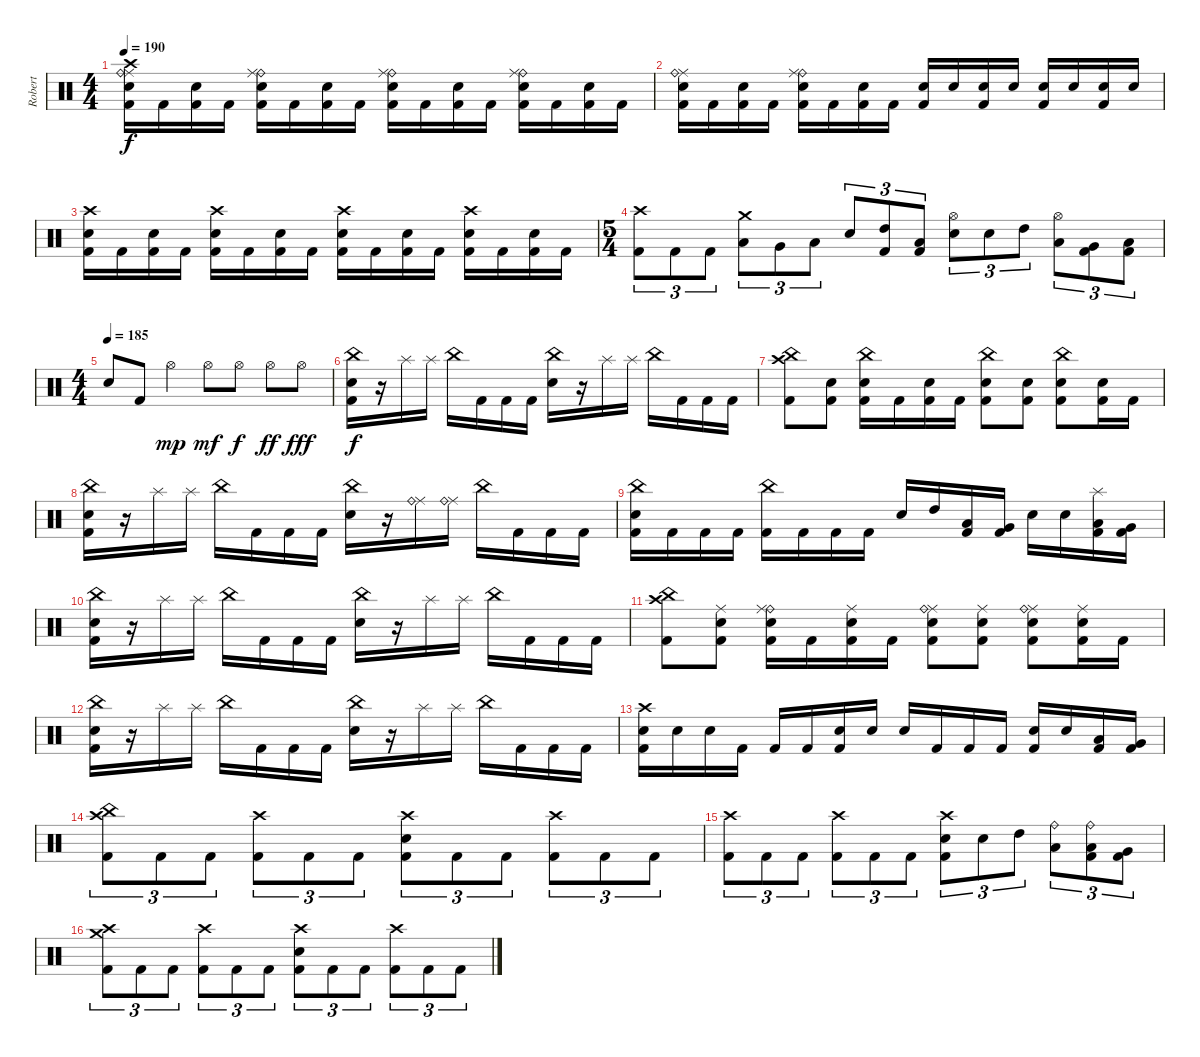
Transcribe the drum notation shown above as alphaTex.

\track ("Robert" "Robert") {instrument percussion}
\staff {score}
\articulation defaults
\ts (4 4)
\tempo 190
\clef neutral
\ks c
("Crash high (hit)" "Ride (middle)" "Electric Snare (hit)" "Ride (bell)" "Kick (hit) 2").16{dy f} "Kick (hit) 2".16 ("Electric Snare (hit)" "Kick (hit) 2").16 "Kick (hit) 2".16 ("Ride (bell)" "Electric Snare (hit)" "Ride (middle)" "Kick (hit) 2").16 "Kick (hit) 2".16 ("Electric Snare (hit)" "Kick (hit) 2").16 "Kick (hit) 2".16 ("Ride (bell)" "Electric Snare (hit)" "Ride (middle)" "Kick (hit) 2").16 "Kick (hit) 2".16 ("Electric Snare (hit)" "Kick (hit) 2").16 "Kick (hit) 2".16 ("Ride (bell)" "Ride (middle)" "Electric Snare (hit)" "Kick (hit) 2").16 "Kick (hit) 2".16 ("Electric Snare (hit)" "Kick (hit) 2").16 "Kick (hit) 2".16 |
("Electric Snare (hit)" "Kick (hit) 2" "Ride (middle)" "Ride (bell)").16 "Kick (hit) 2".16 ("Electric Snare (hit)" "Kick (hit) 2").16 "Kick (hit) 2".16 ("Ride (bell)" "Electric Snare (hit)" "Ride (middle)" "Kick (hit) 2").16 "Kick (hit) 2".16 ("Electric Snare (hit)" "Kick (hit) 2").16 "Kick (hit) 2".16 ("Kick (hit) 2" "Electric Snare (hit)").16 "Electric Snare (hit)".16 ("Kick (hit) 2" "Electric Snare (hit)").16 "Electric Snare (hit)".16 ("Kick (hit) 2" "Electric Snare (hit)").16 "Electric Snare (hit)".16 ("Kick (hit) 2" "Electric Snare (hit)").16 "Electric Snare (hit)".16 |
("Crash high (hit)" "Electric Snare (hit)" "Kick (hit) 2").16 "Kick (hit) 2".16 ("Electric Snare (hit)" "Kick (hit) 2").16 "Kick (hit) 2".16 ("Crash high (hit)" "Electric Snare (hit)" "Kick (hit) 2").16 "Kick (hit) 2".16 ("Electric Snare (hit)" "Kick (hit) 2").16 "Kick (hit) 2".16 ("Crash high (hit)" "Electric Snare (hit)" "Kick (hit) 2").16 "Kick (hit) 2".16 ("Electric Snare (hit)" "Kick (hit) 2").16 "Kick (hit) 2".16 ("Crash high (hit)" "Electric Snare (hit)" "Kick (hit) 2").16 "Kick (hit) 2".16 ("Electric Snare (hit)" "Kick (hit) 2").16 "Kick (hit) 2".16 |
\ts (5 4)
("Crash high (hit)" "Kick (hit) 2").8{tu (3 2)} "Kick (hit) 2".8{tu (3 2)} "Kick (hit) 2".8{tu (3 2)} ("Crash medium (hit)" "Low Tom (hit)").8{tu (3 2)} "Very Low Tom (hit)".8{tu (3 2)} "Low Floor Tom (hit)".8{tu (3 2)} "Electric Snare (hit)".8{tu (3 2)} ("High Tom (hit)" "Kick (hit) 2").8{tu (3 2)} ("Low Tom (hit)" "Kick (hit) 2").8{tu (3 2)} ("Hi-Hat (open)" "Electric Snare (hit)").8{tu (3 2)} "Electric Snare (hit)".8{tu (3 2)} "High Tom (hit)".8{tu (3 2)} ("Hi-Hat (open)" "Low Tom (hit)").8{tu (3 2)} ("Kick (hit) 2" "Very Low Tom (hit)").8{tu (3 2)} ("Kick (hit) 2" "Low Floor Tom (hit)").8{tu (3 2)} |
\ts (4 4)
\tempo (185)
"Electric Snare (hit)".8 "Kick (hit) 2".8 "Hi-Hat (open)".4{dy mp} "Hi-Hat (open)".8{dy mf} "Hi-Hat (open)".8{dy f} "Hi-Hat (open)".8{dy ff} "Hi-Hat (open)".8{dy fff} |
("Kick (hit) 2" "China (hit)" "Electric Snare (hit)").16{dy f} r.16 "Splash (hit)".16 "Splash (hit)".16 "China (hit)".16 "Kick (hit) 2".16 "Kick (hit) 2".16 "Kick (hit) 2".16 ("China (hit)" "Electric Snare (hit)").16 r.16 "Splash (hit)".16 "Splash (hit)".16 "China (hit)".16 "Kick (hit) 2".16 "Kick (hit) 2".16 "Kick (hit) 2".16 |
("China (hit)" "Kick (hit) 2" "Crash high (hit)").8 ("Kick (hit) 2" "Electric Snare (hit)").8 ("China (hit)" "Kick (hit) 2" "Electric Snare (hit)").16 "Kick (hit) 2".16 ("Kick (hit) 2" "Electric Snare (hit)").16 "Kick (hit) 2".16 ("China (hit)" "Kick (hit) 2" "Electric Snare (hit)").8 ("Kick (hit) 2" "Electric Snare (hit)").8 ("China (hit)" "Kick (hit) 2" "Electric Snare (hit)").8 ("Kick (hit) 2" "Electric Snare (hit)").16 "Kick (hit) 2".16 |
("Kick (hit) 2" "China (hit)" "Electric Snare (hit)").16 r.16 "Splash (hit)".16 "Splash (hit)".16 "China (hit)".16 "Kick (hit) 2".16 "Kick (hit) 2".16 "Kick (hit) 2".16 ("China (hit)" "Electric Snare (hit)").16 r.16 ("Ride (middle)" "Ride (bell)").16 ("Ride (middle)" "Ride (bell)").16 "China (hit)".16 "Kick (hit) 2".16 "Kick (hit) 2".16 "Kick (hit) 2".16 |
("Kick (hit) 2" "China (hit)" "Electric Snare (hit)").16 "Kick (hit) 2".16 "Kick (hit) 2".16 "Kick (hit) 2".16 ("Kick (hit) 2" "China (hit)").16 "Kick (hit) 2".16 "Kick (hit) 2".16 "Kick (hit) 2".16 "Electric Snare (hit)".16 "High Tom (hit)".16 ("Low Tom (hit)" "Kick (hit) 2").16 ("Very Low Tom (hit)" "Kick (hit) 2").16 "Electric Snare (hit)".16 "Electric Snare (hit)".16 ("Splash (hit)" "Low Tom (hit)" "Kick (hit) 2").16 ("Very Low Tom (hit)" "Kick (hit) 2").16 |
("Kick (hit) 2" "China (hit)" "Electric Snare (hit)").16 r.16 "Splash (hit)".16 "Splash (hit)".16 "China (hit)".16 "Kick (hit) 2".16 "Kick (hit) 2".16 "Kick (hit) 2".16 ("China (hit)" "Electric Snare (hit)").16 r.16 "Splash (hit)".16 "Splash (hit)".16 "China (hit)".16 "Kick (hit) 2".16 "Kick (hit) 2".16 "Kick (hit) 2".16 |
("China (hit)" "Kick (hit) 2" "Crash high (hit)").8 ("Ride (middle)" "Kick (hit) 2" "Electric Snare (hit)").8 ("Kick (hit) 2" "Ride (bell)" "Ride (middle)" "Electric Snare (hit)").16 "Kick (hit) 2".16 ("Kick (hit) 2" "Ride (middle)" "Electric Snare (hit)").16 "Kick (hit) 2".16 ("Kick (hit) 2" "Ride (middle)" "Electric Snare (hit)" "Ride (bell)").8 ("Kick (hit) 2" "Ride (middle)" "Electric Snare (hit)").8 ("Kick (hit) 2" "Ride (middle)" "Electric Snare (hit)" "Ride (bell)").8 ("Kick (hit) 2" "Ride (middle)" "Electric Snare (hit)").16 "Kick (hit) 2".16 |
("Kick (hit) 2" "China (hit)" "Electric Snare (hit)").16 r.16 "Splash (hit)".16 "Splash (hit)".16 "China (hit)".16 "Kick (hit) 2".16 "Kick (hit) 2".16 "Kick (hit) 2".16 ("China (hit)" "Electric Snare (hit)").16 r.16 "Splash (hit)".16 "Splash (hit)".16 "China (hit)".16 "Kick (hit) 2".16 "Kick (hit) 2".16 "Kick (hit) 2".16 |
("Electric Snare (hit)" "Crash high (hit)" "Kick (hit) 2").16 "Electric Snare (hit)".16 "Electric Snare (hit)".16 "Kick (hit) 2".16 "Kick (hit) 2".16 "Kick (hit) 2".16 ("Electric Snare (hit)" "Kick (hit) 2").16 "Electric Snare (hit)".16 "Electric Snare (hit)".16 "Kick (hit) 2".16 "Kick (hit) 2".16 "Kick (hit) 2".16 ("Electric Snare (hit)" "Kick (hit) 2").16 "Electric Snare (hit)".16 ("Low Tom (hit)" "Kick (hit) 2").16 ("Very Low Tom (hit)" "Kick (hit) 2").16 |
("Kick (hit) 2" "China (hit)" "Crash high (hit)").8{tu (3 2)} "Kick (hit) 2".8{tu (3 2)} "Kick (hit) 2".8{tu (3 2)} ("Kick (hit) 2" "Crash high (hit)").8{tu (3 2)} "Kick (hit) 2".8{tu (3 2)} "Kick (hit) 2".8{tu (3 2)} ("Kick (hit) 2" "Electric Snare (hit)" "Crash high (hit)").8{tu (3 2)} "Kick (hit) 2".8{tu (3 2)} "Kick (hit) 2".8{tu (3 2)} ("Kick (hit) 2" "Crash high (hit)").8{tu (3 2)} "Kick (hit) 2".8{tu (3 2)} "Kick (hit) 2".8{tu (3 2)} |
("Kick (hit) 2" "Crash high (hit)").8{tu (3 2)} "Kick (hit) 2".8{tu (3 2)} "Kick (hit) 2".8{tu (3 2)} ("Kick (hit) 2" "Crash high (hit)").8{tu (3 2)} "Kick (hit) 2".8{tu (3 2)} "Kick (hit) 2".8{tu (3 2)} ("Kick (hit) 2" "Electric Snare (hit)" "Crash high (hit)").8{tu (3 2)} "Electric Snare (hit)".8{tu (3 2)} "High Tom (hit)".8{tu (3 2)} ("Low Tom (hit)" "Ride (bell)").8{tu (3 2)} ("Low Tom (hit)" "Kick (hit) 2" "Ride (bell)").8{tu (3 2)} ("Very Low Tom (hit)" "Kick (hit) 2").8{tu (3 2)} |
("Kick (hit) 2" "Crash medium (hit)" "Crash high (hit)").8{tu (3 2)} "Kick (hit) 2".8{tu (3 2)} "Kick (hit) 2".8{tu (3 2)} ("Kick (hit) 2" "Crash high (hit)").8{tu (3 2)} "Kick (hit) 2".8{tu (3 2)} "Kick (hit) 2".8{tu (3 2)} ("Kick (hit) 2" "Electric Snare (hit)" "Crash high (hit)").8{tu (3 2)} "Kick (hit) 2".8{tu (3 2)} "Kick (hit) 2".8{tu (3 2)} ("Kick (hit) 2" "Crash high (hit)").8{tu (3 2)} "Kick (hit) 2".8{tu (3 2)} "Kick (hit) 2".8{tu (3 2)}
